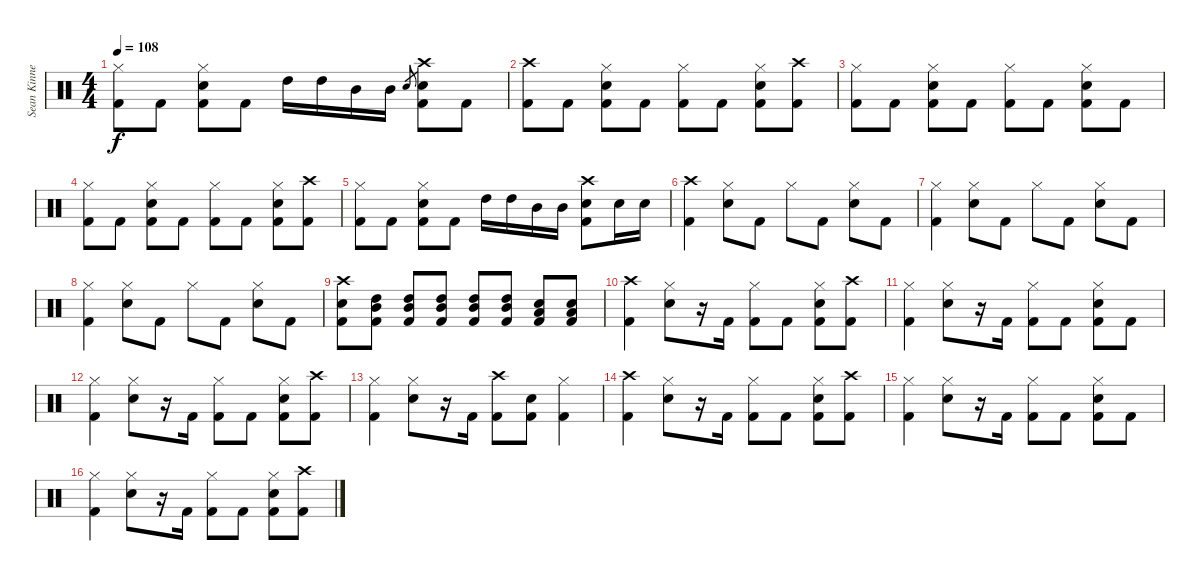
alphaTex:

\track ("Sean Kinney - Drums" "Sean Kinne") {instrument percussion}
\staff {score}
\articulation defaults
\ts (4 4)
\tempo 108
\clef neutral
\ks c
("Hi-Hat (closed)" "Kick (hit) 2").8{dy f} "Kick (hit) 2".8 ("Hi-Hat (closed)" "Electric Snare (hit)" "Kick (hit) 2").8 "Kick (hit) 2".8 "High Tom (hit)".16 "High Tom (hit)".16 "Mid Tom (hit)".16 "Mid Tom (hit)".16 "Electric Snare (hit)".8{gr} ("Crash high (hit)" "Electric Snare (hit)" "Kick (hit) 2").8 "Kick (hit) 2".8 |
("Crash high (hit)" "Kick (hit) 2").8 "Kick (hit) 2".8 ("Hi-Hat (closed)" "Electric Snare (hit)" "Kick (hit) 2").8 "Kick (hit) 2".8 ("Hi-Hat (closed)" "Kick (hit) 2").8 "Kick (hit) 2".8 ("Hi-Hat (closed)" "Electric Snare (hit)" "Kick (hit) 2").8 ("Crash high (hit)" "Kick (hit) 2").8 |
("Hi-Hat (closed)" "Kick (hit) 2").8 "Kick (hit) 2".8 ("Hi-Hat (closed)" "Electric Snare (hit)" "Kick (hit) 2").8 "Kick (hit) 2".8 ("Hi-Hat (closed)" "Kick (hit) 2").8 "Kick (hit) 2".8 ("Hi-Hat (closed)" "Electric Snare (hit)" "Kick (hit) 2").8 "Kick (hit) 2".8 |
("Hi-Hat (closed)" "Kick (hit) 2").8 "Kick (hit) 2".8 ("Hi-Hat (closed)" "Electric Snare (hit)" "Kick (hit) 2").8 "Kick (hit) 2".8 ("Hi-Hat (closed)" "Kick (hit) 2").8 "Kick (hit) 2".8 ("Hi-Hat (closed)" "Electric Snare (hit)" "Kick (hit) 2").8 ("Crash high (hit)" "Kick (hit) 2").8 |
("Hi-Hat (closed)" "Kick (hit) 2").8 "Kick (hit) 2".8 ("Hi-Hat (closed)" "Electric Snare (hit)" "Kick (hit) 2").8 "Kick (hit) 2".8 "High Tom (hit)".16 "High Tom (hit)".16 "Mid Tom (hit)".16 "Mid Tom (hit)".16 ("Crash high (hit)" "Electric Snare (hit)" "Kick (hit) 2").8 "Electric Snare (hit)".16 "Electric Snare (hit)".16 |
("Crash high (hit)" "Kick (hit) 2").4 ("Hi-Hat (closed)" "Electric Snare (hit)").8 "Kick (hit) 2".8 "Hi-Hat (closed)".8 "Kick (hit) 2".8 ("Hi-Hat (closed)" "Electric Snare (hit)").8 "Kick (hit) 2".8 |
("Hi-Hat (closed)" "Kick (hit) 2").4 ("Hi-Hat (closed)" "Electric Snare (hit)").8 "Kick (hit) 2".8 "Hi-Hat (closed)".8 "Kick (hit) 2".8 ("Hi-Hat (closed)" "Electric Snare (hit)").8 "Kick (hit) 2".8 |
("Hi-Hat (closed)" "Kick (hit) 2").4 ("Hi-Hat (closed)" "Electric Snare (hit)").8 "Kick (hit) 2".8 "Hi-Hat (closed)".8 "Kick (hit) 2".8 ("Hi-Hat (closed)" "Electric Snare (hit)").8 "Kick (hit) 2".8 |
("Crash high (hit)" "Electric Snare (hit)" "Kick (hit) 2").8 ("Mid Tom (hit)" "High Tom (hit)" "Kick (hit) 2").8 ("Mid Tom (hit)" "High Tom (hit)" "Kick (hit) 2").8 ("Mid Tom (hit)" "High Tom (hit)" "Kick (hit) 2").8 ("Mid Tom (hit)" "High Tom (hit)" "Kick (hit) 2").8 ("Mid Tom (hit)" "High Tom (hit)" "Kick (hit) 2").8 ("Electric Snare (hit)" "Low Tom (hit)" "Kick (hit) 2").8 ("Electric Snare (hit)" "Low Tom (hit)" "Kick (hit) 2").8 |
("Crash high (hit)" "Kick (hit) 2").4 ("Hi-Hat (closed)" "Electric Snare (hit)").8 r.16 "Kick (hit) 2".16 ("Hi-Hat (closed)" "Kick (hit) 2").8 "Kick (hit) 2".8 ("Hi-Hat (closed)" "Electric Snare (hit)" "Kick (hit) 2").8 ("Crash high (hit)" "Kick (hit) 2").8 |
("Hi-Hat (closed)" "Kick (hit) 2").4 ("Hi-Hat (closed)" "Electric Snare (hit)").8 r.16 "Kick (hit) 2".16 ("Hi-Hat (closed)" "Kick (hit) 2").8 "Kick (hit) 2".8 ("Hi-Hat (closed)" "Electric Snare (hit)" "Kick (hit) 2").8 "Kick (hit) 2".8 |
("Hi-Hat (closed)" "Kick (hit) 2").4 ("Hi-Hat (closed)" "Electric Snare (hit)").8 r.16 "Kick (hit) 2".16 ("Hi-Hat (closed)" "Kick (hit) 2").8 "Kick (hit) 2".8 ("Hi-Hat (closed)" "Electric Snare (hit)" "Kick (hit) 2").8 ("Crash high (hit)" "Kick (hit) 2").8 |
("Hi-Hat (closed)" "Kick (hit) 2").4 ("Hi-Hat (closed)" "Electric Snare (hit)").8 r.16 "Kick (hit) 2".16 ("Crash high (hit)" "Kick (hit) 2").8 ("Electric Snare (hit)" "Kick (hit) 2").8 ("Hi-Hat (closed)" "Kick (hit) 2").4 |
("Crash high (hit)" "Kick (hit) 2").4 ("Hi-Hat (closed)" "Electric Snare (hit)").8 r.16 "Kick (hit) 2".16 ("Hi-Hat (closed)" "Kick (hit) 2").8 "Kick (hit) 2".8 ("Hi-Hat (closed)" "Electric Snare (hit)" "Kick (hit) 2").8 ("Crash high (hit)" "Kick (hit) 2").8 |
("Hi-Hat (closed)" "Kick (hit) 2").4 ("Hi-Hat (closed)" "Electric Snare (hit)").8 r.16 "Kick (hit) 2".16 ("Hi-Hat (closed)" "Kick (hit) 2").8 "Kick (hit) 2".8 ("Hi-Hat (closed)" "Electric Snare (hit)" "Kick (hit) 2").8 "Kick (hit) 2".8 |
("Hi-Hat (closed)" "Kick (hit) 2").4 ("Hi-Hat (closed)" "Electric Snare (hit)").8 r.16 "Kick (hit) 2".16 ("Hi-Hat (closed)" "Kick (hit) 2").8 "Kick (hit) 2".8 ("Hi-Hat (closed)" "Electric Snare (hit)" "Kick (hit) 2").8 ("Crash high (hit)" "Kick (hit) 2").8
